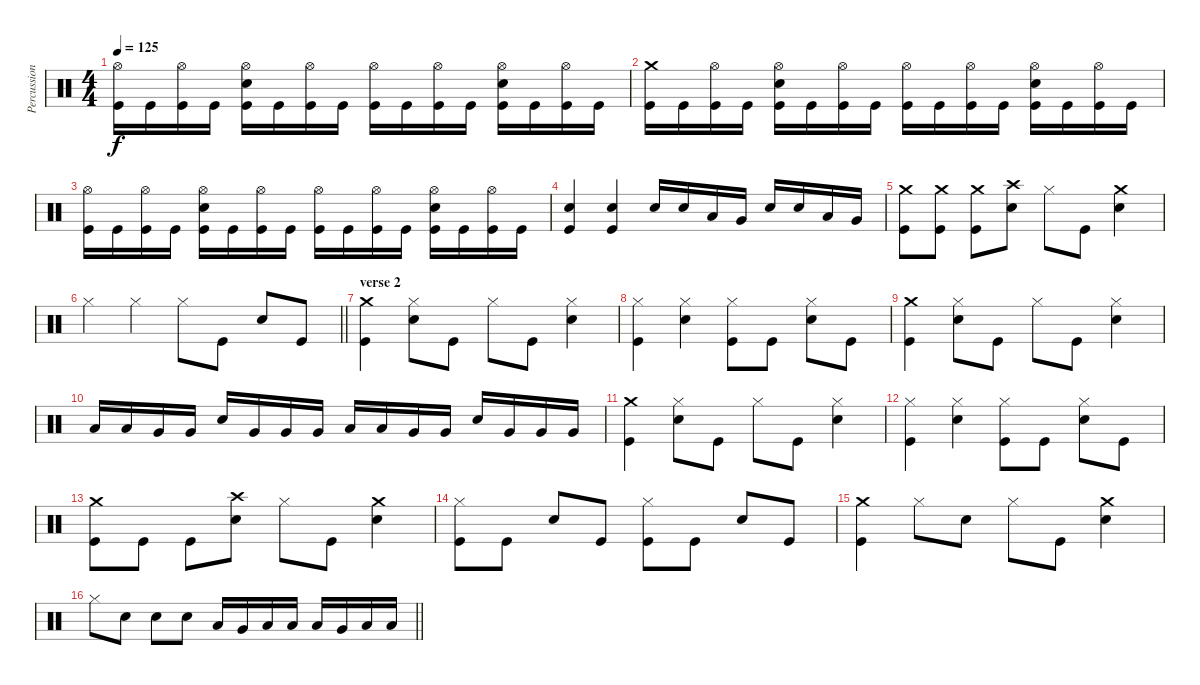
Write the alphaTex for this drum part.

\track ("Percussion" "Percussion") {instrument percussion}
\staff {score}
\articulation defaults
\ts (4 4)
\tempo 125
\clef neutral
\ks c
("Hi-Hat (open)" "Kick (hit)").16{dy f} "Kick (hit)".16 ("Hi-Hat (open)" "Kick (hit)").16 "Kick (hit)".16 ("Hi-Hat (open)" "Electric Snare (hit)" "Kick (hit)").16 "Kick (hit)".16 ("Hi-Hat (open)" "Kick (hit)").16 "Kick (hit)".16 ("Hi-Hat (open)" "Kick (hit)").16 "Kick (hit)".16 ("Hi-Hat (open)" "Kick (hit)").16 "Kick (hit)".16 ("Hi-Hat (open)" "Electric Snare (hit)" "Kick (hit)").16 "Kick (hit)".16 ("Hi-Hat (open)" "Kick (hit)").16 "Kick (hit)".16 |
("Crash medium (hit)" "Kick (hit)").16 "Kick (hit)".16 ("Hi-Hat (open)" "Kick (hit)").16 "Kick (hit)".16 ("Hi-Hat (open)" "Electric Snare (hit)" "Kick (hit)").16 "Kick (hit)".16 ("Hi-Hat (open)" "Kick (hit)").16 "Kick (hit)".16 ("Hi-Hat (open)" "Kick (hit)").16 "Kick (hit)".16 ("Hi-Hat (open)" "Kick (hit)").16 "Kick (hit)".16 ("Hi-Hat (open)" "Electric Snare (hit)" "Kick (hit)").16 "Kick (hit)".16 ("Hi-Hat (open)" "Kick (hit)").16 "Kick (hit)".16 |
("Hi-Hat (open)" "Kick (hit)").16 "Kick (hit)".16 ("Hi-Hat (open)" "Kick (hit)").16 "Kick (hit)".16 ("Hi-Hat (open)" "Electric Snare (hit)" "Kick (hit)").16 "Kick (hit)".16 ("Hi-Hat (open)" "Kick (hit)").16 "Kick (hit)".16 ("Hi-Hat (open)" "Kick (hit)").16 "Kick (hit)".16 ("Hi-Hat (open)" "Kick (hit)").16 "Kick (hit)".16 ("Hi-Hat (open)" "Electric Snare (hit)" "Kick (hit)").16 "Kick (hit)".16 ("Hi-Hat (open)" "Kick (hit)").16 "Kick (hit)".16 |
("Electric Snare (hit)" "Kick (hit)").4 ("Electric Snare (hit)" "Kick (hit)").4 "Electric Snare (hit)".16 "Electric Snare (hit)".16 "Low Tom (hit)".16 "Very Low Tom (hit)".16 "Electric Snare (hit)".16 "Electric Snare (hit)".16 "Low Tom (hit)".16 "Very Low Tom (hit)".16 |
("Crash medium (hit)" "Kick (hit)").8 ("Crash medium (hit)" "Kick (hit)").8 ("Crash medium (hit)" "Kick (hit)").8 ("Crash high (hit)" "Electric Snare (hit)").8 "Hi-Hat (closed)".8 "Kick (hit)".8 ("Crash medium (hit)" "Electric Snare (hit)").4 |
\barLineRight lightlight "Hi-Hat (closed)".4 "Hi-Hat (closed)".4 "Hi-Hat (closed)".8 "Kick (hit)".8 "Electric Snare (hit)".8 "Kick (hit)".8
|
\section ("" "verse 2")
("Crash medium (hit)" "Kick (hit)").4 ("Hi-Hat (closed)" "Electric Snare (hit)").8 "Kick (hit)".8 "Hi-Hat (closed)".8 "Kick (hit)".8 ("Hi-Hat (closed)" "Electric Snare (hit)").4 |
("Hi-Hat (closed)" "Kick (hit)").4 ("Hi-Hat (closed)" "Electric Snare (hit)").4 ("Hi-Hat (closed)" "Kick (hit)").8 "Kick (hit)".8 ("Hi-Hat (closed)" "Electric Snare (hit)").8 "Kick (hit)".8 |
("Crash medium (hit)" "Kick (hit)").4 ("Hi-Hat (closed)" "Electric Snare (hit)").8 "Kick (hit)".8 "Hi-Hat (closed)".8 "Kick (hit)".8 ("Hi-Hat (closed)" "Electric Snare (hit)").4 |
"Low Tom (hit)".16 "Low Tom (hit)".16 "Very Low Tom (hit)".16 "Very Low Tom (hit)".16 "Electric Snare (hit)".16 "Very Low Tom (hit)".16 "Very Low Tom (hit)".16 "Very Low Tom (hit)".16 "Low Tom (hit)".16 "Low Tom (hit)".16 "Very Low Tom (hit)".16 "Very Low Tom (hit)".16 "Electric Snare (hit)".16 "Very Low Tom (hit)".16 "Very Low Tom (hit)".16 "Very Low Tom (hit)".16 |
("Crash medium (hit)" "Kick (hit)").4 ("Hi-Hat (closed)" "Electric Snare (hit)").8 "Kick (hit)".8 "Hi-Hat (closed)".8 "Kick (hit)".8 ("Hi-Hat (closed)" "Electric Snare (hit)").4 |
("Hi-Hat (closed)" "Kick (hit)").4 ("Hi-Hat (closed)" "Electric Snare (hit)").4 ("Hi-Hat (closed)" "Kick (hit)").8 "Kick (hit)".8 ("Hi-Hat (closed)" "Electric Snare (hit)").8 "Kick (hit)".8 |
("Crash medium (hit)" "Kick (hit)").8 "Kick (hit)".8 "Kick (hit)".8 ("Crash high (hit)" "Electric Snare (hit)").8 "Hi-Hat (closed)".8 "Kick (hit)".8 ("Crash medium (hit)" "Electric Snare (hit)").4 |
("Hi-Hat (closed)" "Kick (hit)").8 "Kick (hit)".8 "Electric Snare (hit)".8 "Kick (hit)".8 ("Hi-Hat (closed)" "Kick (hit)").8 "Kick (hit)".8 "Electric Snare (hit)".8 "Kick (hit)".8 |
("Crash medium (hit)" "Kick (hit)").4 "Hi-Hat (closed)".8 "Electric Snare (hit)".8 "Hi-Hat (closed)".8 "Kick (hit)".8 ("Crash medium (hit)" "Electric Snare (hit)").4 |
\barLineRight lightlight "Hi-Hat (closed)".8 "Electric Snare (hit)".8 "Electric Snare (hit)".8 "Electric Snare (hit)".8 "Low Tom (hit)".16 "Very Low Tom (hit)".16 "Low Floor Tom (hit)".16 "Low Floor Tom (hit)".16 "Low Tom (hit)".16 "Very Low Tom (hit)".16 "Low Floor Tom (hit)".16 "Low Floor Tom (hit)".16
